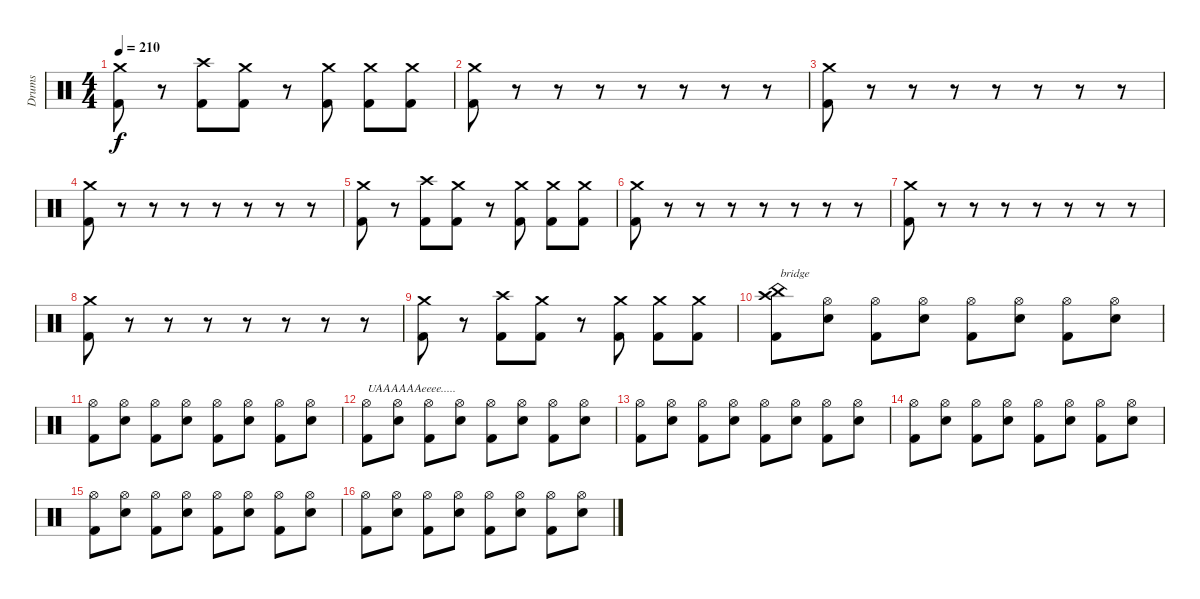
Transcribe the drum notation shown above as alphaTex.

\track ("Drums" "Drums") {instrument percussion}
\staff {score}
\articulation defaults
\ts (4 4)
\tempo 210
\clef neutral
\ks c
("Kick (hit) 2" "Crash medium (hit)").8{dy f} r.8 ("Kick (hit) 2" "Crash high (hit)").8 ("Kick (hit) 2" "Crash medium (hit)").8 r.8 ("Kick (hit) 2" "Crash medium (hit)").8 ("Kick (hit) 2" "Crash medium (hit)").8 ("Kick (hit) 2" "Crash medium (hit)").8 |
("Kick (hit) 2" "Crash medium (hit)").8 r.8 r.8 r.8 r.8 r.8 r.8 r.8 |
("Kick (hit) 2" "Crash medium (hit)").8 r.8 r.8 r.8 r.8 r.8 r.8 r.8 |
("Crash medium (hit)" "Kick (hit) 2").8 r.8 r.8 r.8 r.8 r.8 r.8 r.8 |
("Kick (hit) 2" "Crash medium (hit)").8 r.8 ("Kick (hit) 2" "Crash high (hit)").8 ("Kick (hit) 2" "Crash medium (hit)").8 r.8 ("Kick (hit) 2" "Crash medium (hit)").8 ("Kick (hit) 2" "Crash medium (hit)").8 ("Kick (hit) 2" "Crash medium (hit)").8 |
("Kick (hit) 2" "Crash medium (hit)").8 r.8 r.8 r.8 r.8 r.8 r.8 r.8 |
("Kick (hit) 2" "Crash medium (hit)").8 r.8 r.8 r.8 r.8 r.8 r.8 r.8 |
("Crash medium (hit)" "Kick (hit) 2").8 r.8 r.8 r.8 r.8 r.8 r.8 r.8 |
("Kick (hit) 2" "Crash medium (hit)").8 r.8 ("Kick (hit) 2" "Crash high (hit)").8 ("Kick (hit) 2" "Crash medium (hit)").8 r.8 ("Kick (hit) 2" "Crash medium (hit)").8 ("Kick (hit) 2" "Crash medium (hit)").8 ("Kick (hit) 2" "Crash medium (hit)").8 |
("Kick (hit) 2" "China (hit)" "Crash high (hit)").8{txt "bridge"} ("Snare (hit) 2" "Hi-Hat (open)").8 ("Kick (hit) 2" "Hi-Hat (open)").8 ("Snare (hit) 2" "Hi-Hat (open)").8 ("Kick (hit) 2" "Hi-Hat (open)").8 ("Snare (hit) 2" "Hi-Hat (open)").8 ("Kick (hit) 2" "Hi-Hat (open)").8 ("Snare (hit) 2" "Hi-Hat (open)").8 |
("Kick (hit) 2" "Hi-Hat (open)").8 ("Snare (hit) 2" "Hi-Hat (open)").8 ("Kick (hit) 2" "Hi-Hat (open)").8 ("Snare (hit) 2" "Hi-Hat (open)").8 ("Kick (hit) 2" "Hi-Hat (open)").8 ("Snare (hit) 2" "Hi-Hat (open)").8 ("Kick (hit) 2" "Hi-Hat (open)").8 ("Snare (hit) 2" "Hi-Hat (open)").8 |
("Kick (hit) 2" "Hi-Hat (open)").8{txt "UAAAAAAeeee....."} ("Snare (hit) 2" "Hi-Hat (open)").8 ("Kick (hit) 2" "Hi-Hat (open)").8 ("Snare (hit) 2" "Hi-Hat (open)").8 ("Kick (hit) 2" "Hi-Hat (open)").8 ("Snare (hit) 2" "Hi-Hat (open)").8 ("Kick (hit) 2" "Hi-Hat (open)").8 ("Snare (hit) 2" "Hi-Hat (open)").8 |
("Kick (hit) 2" "Hi-Hat (open)").8 ("Snare (hit) 2" "Hi-Hat (open)").8 ("Kick (hit) 2" "Hi-Hat (open)").8 ("Snare (hit) 2" "Hi-Hat (open)").8 ("Kick (hit) 2" "Hi-Hat (open)").8 ("Snare (hit) 2" "Hi-Hat (open)").8 ("Kick (hit) 2" "Hi-Hat (open)").8 ("Snare (hit) 2" "Hi-Hat (open)").8 |
("Kick (hit) 2" "Hi-Hat (open)").8 ("Snare (hit) 2" "Hi-Hat (open)").8 ("Kick (hit) 2" "Hi-Hat (open)").8 ("Snare (hit) 2" "Hi-Hat (open)").8 ("Kick (hit) 2" "Hi-Hat (open)").8 ("Snare (hit) 2" "Hi-Hat (open)").8 ("Kick (hit) 2" "Hi-Hat (open)").8 ("Snare (hit) 2" "Hi-Hat (open)").8 |
("Kick (hit) 2" "Hi-Hat (open)").8 ("Snare (hit) 2" "Hi-Hat (open)").8 ("Kick (hit) 2" "Hi-Hat (open)").8 ("Snare (hit) 2" "Hi-Hat (open)").8 ("Kick (hit) 2" "Hi-Hat (open)").8 ("Snare (hit) 2" "Hi-Hat (open)").8 ("Kick (hit) 2" "Hi-Hat (open)").8 ("Snare (hit) 2" "Hi-Hat (open)").8 |
("Kick (hit) 2" "Hi-Hat (open)").8 ("Snare (hit) 2" "Hi-Hat (open)").8 ("Kick (hit) 2" "Hi-Hat (open)").8 ("Snare (hit) 2" "Hi-Hat (open)").8 ("Kick (hit) 2" "Hi-Hat (open)").8 ("Snare (hit) 2" "Hi-Hat (open)").8 ("Kick (hit) 2" "Hi-Hat (open)").8 ("Snare (hit) 2" "Hi-Hat (open)").8
